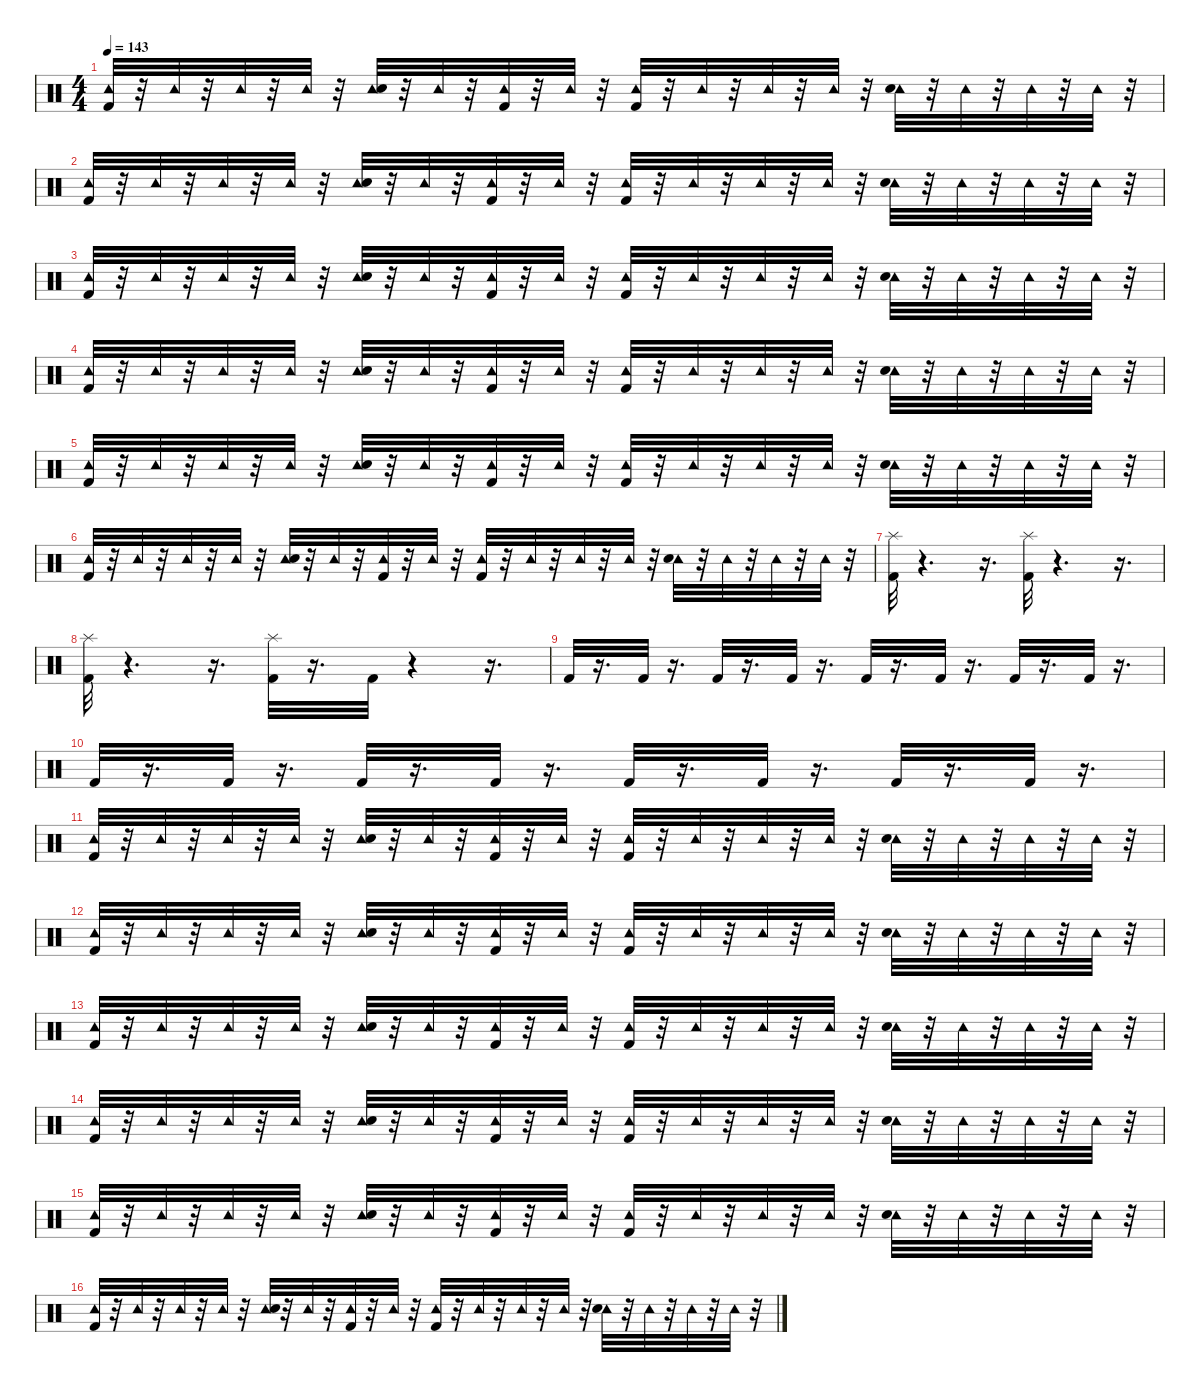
\defaultSystemsLayout 4
\hideDynamics
\bracketExtendMode nobrackets
\singleTrackTrackNamePolicy hidden
\multiTrackTrackNamePolicy hidden
\firstSystemTrackNameMode fullname
\firstSystemTrackNameOrientation horizontal
\otherSystemsTrackNameOrientation horizontal
\track ("Drums" "drm.") {instrument percussion}
\staff {score}
\articulation defaults
\ts (4 4)
\tempo 143
\clef neutral
\ks c
("Kick (hit) 2" "Tambourine (hit)").32{dy ff beam Up} r.32{beam Up} "Tambourine (hit)".32{dy mf beam Up} r.32{beam Up} "Tambourine (hit)".32{beam Up} r.32{beam Up} "Tambourine (hit)".32{beam Up} r.32{beam Up} ("Tambourine (hit)" "Snare (hit) 2").32{dy fff beam Up} r.32{beam Up} "Tambourine (hit)".32{dy mf beam Up} r.32{beam Up} ("Kick (hit) 2" "Tambourine (hit)").32{dy fff beam Up} r.32{beam Up} "Tambourine (hit)".32{dy mf beam Up} r.32{beam Up} ("Kick (hit) 2" "Tambourine (hit)").32{dy ff beam Up} r.32{beam Up} "Tambourine (hit)".32{dy mf beam Up} r.32{beam Up} "Tambourine (hit)".32{dy mp beam Up} r.32{beam Up} "Tambourine (hit)".32{dy mf beam Up} r.32{beam Up} ("Tambourine (hit)" "Snare (hit) 2").32{dy fff beam Down} r.32{beam Down} "Tambourine (hit)".32{dy mf beam Down} r.32{beam Down} "Tambourine (hit)".32{beam Down} r.32{beam Down} "Tambourine (hit)".32{beam Down} r.32{beam Down} |
("Kick (hit) 2" "Tambourine (hit)").32{dy ff beam Up} r.32{beam Up} "Tambourine (hit)".32{dy mf beam Up} r.32{beam Up} "Tambourine (hit)".32{beam Up} r.32{beam Up} "Tambourine (hit)".32{beam Up} r.32{beam Up} ("Tambourine (hit)" "Snare (hit) 2").32{dy fff beam Up} r.32{beam Up} "Tambourine (hit)".32{dy mf beam Up} r.32{beam Up} ("Kick (hit) 2" "Tambourine (hit)").32{dy fff beam Up} r.32{beam Up} "Tambourine (hit)".32{dy mf beam Up} r.32{beam Up} ("Kick (hit) 2" "Tambourine (hit)").32{dy ff beam Up} r.32{beam Up} "Tambourine (hit)".32{dy mf beam Up} r.32{beam Up} "Tambourine (hit)".32{dy mp beam Up} r.32{beam Up} "Tambourine (hit)".32{dy mf beam Up} r.32{beam Up} ("Tambourine (hit)" "Snare (hit) 2").32{dy fff beam Down} r.32{beam Down} "Tambourine (hit)".32{dy mf beam Down} r.32{beam Down} "Tambourine (hit)".32{beam Down} r.32{beam Down} "Tambourine (hit)".32{beam Down} r.32{beam Down} |
("Kick (hit) 2" "Tambourine (hit)").32{dy ff beam Up} r.32{beam Up} "Tambourine (hit)".32{dy mf beam Up} r.32{beam Up} "Tambourine (hit)".32{beam Up} r.32{beam Up} "Tambourine (hit)".32{beam Up} r.32{beam Up} ("Tambourine (hit)" "Snare (hit) 2").32{dy fff beam Up} r.32{beam Up} "Tambourine (hit)".32{dy mf beam Up} r.32{beam Up} ("Kick (hit) 2" "Tambourine (hit)").32{dy fff beam Up} r.32{beam Up} "Tambourine (hit)".32{dy mf beam Up} r.32{beam Up} ("Kick (hit) 2" "Tambourine (hit)").32{dy ff beam Up} r.32{beam Up} "Tambourine (hit)".32{dy mf beam Up} r.32{beam Up} "Tambourine (hit)".32{dy mp beam Up} r.32{beam Up} "Tambourine (hit)".32{dy mf beam Up} r.32{beam Up} ("Tambourine (hit)" "Snare (hit) 2").32{dy fff beam Down} r.32{beam Down} "Tambourine (hit)".32{dy mf beam Down} r.32{beam Down} "Tambourine (hit)".32{beam Down} r.32{beam Down} "Tambourine (hit)".32{beam Down} r.32{beam Down} |
("Kick (hit) 2" "Tambourine (hit)").32{dy ff beam Up} r.32{beam Up} "Tambourine (hit)".32{dy mf beam Up} r.32{beam Up} "Tambourine (hit)".32{beam Up} r.32{beam Up} "Tambourine (hit)".32{beam Up} r.32{beam Up} ("Tambourine (hit)" "Snare (hit) 2").32{dy fff beam Up} r.32{beam Up} "Tambourine (hit)".32{dy mf beam Up} r.32{beam Up} ("Kick (hit) 2" "Tambourine (hit)").32{dy fff beam Up} r.32{beam Up} "Tambourine (hit)".32{dy mf beam Up} r.32{beam Up} ("Kick (hit) 2" "Tambourine (hit)").32{dy ff beam Up} r.32{beam Up} "Tambourine (hit)".32{dy mf beam Up} r.32{beam Up} "Tambourine (hit)".32{dy mp beam Up} r.32{beam Up} "Tambourine (hit)".32{dy mf beam Up} r.32{beam Up} ("Tambourine (hit)" "Snare (hit) 2").32{dy fff beam Down} r.32{beam Down} "Tambourine (hit)".32{dy mf beam Down} r.32{beam Down} "Tambourine (hit)".32{beam Down} r.32{beam Down} "Tambourine (hit)".32{beam Down} r.32{beam Down} |
("Kick (hit) 2" "Tambourine (hit)").32{dy ff beam Up} r.32{beam Up} "Tambourine (hit)".32{dy mf beam Up} r.32{beam Up} "Tambourine (hit)".32{beam Up} r.32{beam Up} "Tambourine (hit)".32{beam Up} r.32{beam Up} ("Tambourine (hit)" "Snare (hit) 2").32{dy fff beam Up} r.32{beam Up} "Tambourine (hit)".32{dy mf beam Up} r.32{beam Up} ("Kick (hit) 2" "Tambourine (hit)").32{dy fff beam Up} r.32{beam Up} "Tambourine (hit)".32{dy mf beam Up} r.32{beam Up} ("Kick (hit) 2" "Tambourine (hit)").32{dy ff beam Up} r.32{beam Up} "Tambourine (hit)".32{dy mf beam Up} r.32{beam Up} "Tambourine (hit)".32{dy mp beam Up} r.32{beam Up} "Tambourine (hit)".32{dy mf beam Up} r.32{beam Up} ("Tambourine (hit)" "Snare (hit) 2").32{dy fff beam Down} r.32{beam Down} "Tambourine (hit)".32{dy mf beam Down} r.32{beam Down} "Tambourine (hit)".32{beam Down} r.32{beam Down} "Tambourine (hit)".32{beam Down} r.32{beam Down} |
("Kick (hit) 2" "Tambourine (hit)").32{dy ff beam Up} r.32{beam Up} "Tambourine (hit)".32{dy mf beam Up} r.32{beam Up} "Tambourine (hit)".32{beam Up} r.32{beam Up} "Tambourine (hit)".32{beam Up} r.32{beam Up} ("Tambourine (hit)" "Snare (hit) 2").32{dy fff beam Up} r.32{beam Up} "Tambourine (hit)".32{dy mf beam Up} r.32{beam Up} ("Kick (hit) 2" "Tambourine (hit)").32{dy fff beam Up} r.32{beam Up} "Tambourine (hit)".32{dy mf beam Up} r.32{beam Up} ("Kick (hit) 2" "Tambourine (hit)").32{dy ff beam Up} r.32{beam Up} "Tambourine (hit)".32{dy mf beam Up} r.32{beam Up} "Tambourine (hit)".32{dy mp beam Up} r.32{beam Up} "Tambourine (hit)".32{dy mf beam Up} r.32{beam Up} ("Tambourine (hit)" "Snare (hit) 2").32{dy fff beam Down} r.32{beam Down} "Tambourine (hit)".32{dy mf beam Down} r.32{beam Down} "Tambourine (hit)".32{beam Down} r.32{beam Down} "Tambourine (hit)".32{beam Down} r.32{beam Down} |
("Splash (hit)" "Kick (hit) 2").32{dy fff beam Down} r.4{d beam Down} r.16{d beam Down} ("Splash (hit)" "Kick (hit) 2").32{beam Down} r.4{d beam Down} r.16{d beam Down} |
("Splash (hit)" "Kick (hit) 2").32{beam Down} r.4{d beam Down} r.16{d beam Down} ("Splash (hit)" "Kick (hit) 2").32{beam Down} r.16{d beam Down} "Kick (hit) 2".32{dy ff beam Down} r.4{beam Down} r.16{d beam Down} |
"Kick (hit) 2".32{dy f beam Up} r.16{d beam Up} "Kick (hit) 2".32{beam Up} r.16{d beam Up} "Kick (hit) 2".32{beam Up} r.16{d beam Up} "Kick (hit) 2".32{dy ff beam Up} r.16{d beam Up} "Kick (hit) 2".32{dy fff beam Up} r.16{d beam Up} "Kick (hit) 2".32{dy ff beam Up} r.16{d beam Up} "Kick (hit) 2".32{beam Up} r.16{d beam Up} "Kick (hit) 2".32{beam Up} r.16{d beam Up} |
"Kick (hit) 2".32{beam Up} r.16{d beam Up} "Kick (hit) 2".32{beam Up} r.16{d beam Up} "Kick (hit) 2".32{beam Up} r.16{d beam Up} "Kick (hit) 2".32{beam Up} r.16{d beam Up} "Kick (hit) 2".32{dy fff beam Up} r.16{d beam Up} "Kick (hit) 2".32{dy ff beam Up} r.16{d beam Up} "Kick (hit) 2".32{beam Up} r.16{d beam Up} "Kick (hit) 2".32{dy fff beam Up} r.16{d beam Up} |
("Kick (hit) 2" "Tambourine (hit)").32{dy ff beam Up} r.32{beam Up} "Tambourine (hit)".32{dy mf beam Up} r.32{beam Up} "Tambourine (hit)".32{beam Up} r.32{beam Up} "Tambourine (hit)".32{beam Up} r.32{beam Up} ("Tambourine (hit)" "Snare (hit) 2").32{dy fff beam Up} r.32{beam Up} "Tambourine (hit)".32{dy mf beam Up} r.32{beam Up} ("Kick (hit) 2" "Tambourine (hit)").32{dy fff beam Up} r.32{beam Up} "Tambourine (hit)".32{dy mf beam Up} r.32{beam Up} ("Kick (hit) 2" "Tambourine (hit)").32{dy ff beam Up} r.32{beam Up} "Tambourine (hit)".32{dy mf beam Up} r.32{beam Up} "Tambourine (hit)".32{dy mp beam Up} r.32{beam Up} "Tambourine (hit)".32{dy mf beam Up} r.32{beam Up} ("Tambourine (hit)" "Snare (hit) 2").32{dy fff beam Down} r.32{beam Down} "Tambourine (hit)".32{dy mf beam Down} r.32{beam Down} "Tambourine (hit)".32{beam Down} r.32{beam Down} "Tambourine (hit)".32{beam Down} r.32{beam Down} |
("Kick (hit) 2" "Tambourine (hit)").32{dy ff beam Up} r.32{beam Up} "Tambourine (hit)".32{dy mf beam Up} r.32{beam Up} "Tambourine (hit)".32{beam Up} r.32{beam Up} "Tambourine (hit)".32{beam Up} r.32{beam Up} ("Tambourine (hit)" "Snare (hit) 2").32{dy fff beam Up} r.32{beam Up} "Tambourine (hit)".32{dy mf beam Up} r.32{beam Up} ("Kick (hit) 2" "Tambourine (hit)").32{dy fff beam Up} r.32{beam Up} "Tambourine (hit)".32{dy mf beam Up} r.32{beam Up} ("Kick (hit) 2" "Tambourine (hit)").32{dy ff beam Up} r.32{beam Up} "Tambourine (hit)".32{dy mf beam Up} r.32{beam Up} "Tambourine (hit)".32{dy mp beam Up} r.32{beam Up} "Tambourine (hit)".32{dy mf beam Up} r.32{beam Up} ("Tambourine (hit)" "Snare (hit) 2").32{dy fff beam Down} r.32{beam Down} "Tambourine (hit)".32{dy mf beam Down} r.32{beam Down} "Tambourine (hit)".32{beam Down} r.32{beam Down} "Tambourine (hit)".32{beam Down} r.32{beam Down} |
("Kick (hit) 2" "Tambourine (hit)").32{dy ff beam Up} r.32{beam Up} "Tambourine (hit)".32{dy mf beam Up} r.32{beam Up} "Tambourine (hit)".32{beam Up} r.32{beam Up} "Tambourine (hit)".32{beam Up} r.32{beam Up} ("Tambourine (hit)" "Snare (hit) 2").32{dy fff beam Up} r.32{beam Up} "Tambourine (hit)".32{dy mf beam Up} r.32{beam Up} ("Kick (hit) 2" "Tambourine (hit)").32{dy fff beam Up} r.32{beam Up} "Tambourine (hit)".32{dy mf beam Up} r.32{beam Up} ("Kick (hit) 2" "Tambourine (hit)").32{dy ff beam Up} r.32{beam Up} "Tambourine (hit)".32{dy mf beam Up} r.32{beam Up} "Tambourine (hit)".32{dy mp beam Up} r.32{beam Up} "Tambourine (hit)".32{dy mf beam Up} r.32{beam Up} ("Tambourine (hit)" "Snare (hit) 2").32{dy fff beam Down} r.32{beam Down} "Tambourine (hit)".32{dy mf beam Down} r.32{beam Down} "Tambourine (hit)".32{beam Down} r.32{beam Down} "Tambourine (hit)".32{beam Down} r.32{beam Down} |
("Kick (hit) 2" "Tambourine (hit)").32{dy ff beam Up} r.32{beam Up} "Tambourine (hit)".32{dy mf beam Up} r.32{beam Up} "Tambourine (hit)".32{beam Up} r.32{beam Up} "Tambourine (hit)".32{beam Up} r.32{beam Up} ("Tambourine (hit)" "Snare (hit) 2").32{dy fff beam Up} r.32{beam Up} "Tambourine (hit)".32{dy mf beam Up} r.32{beam Up} ("Kick (hit) 2" "Tambourine (hit)").32{dy fff beam Up} r.32{beam Up} "Tambourine (hit)".32{dy mf beam Up} r.32{beam Up} ("Kick (hit) 2" "Tambourine (hit)").32{dy ff beam Up} r.32{beam Up} "Tambourine (hit)".32{dy mf beam Up} r.32{beam Up} "Tambourine (hit)".32{dy mp beam Up} r.32{beam Up} "Tambourine (hit)".32{dy mf beam Up} r.32{beam Up} ("Tambourine (hit)" "Snare (hit) 2").32{dy fff beam Down} r.32{beam Down} "Tambourine (hit)".32{dy mf beam Down} r.32{beam Down} "Tambourine (hit)".32{beam Down} r.32{beam Down} "Tambourine (hit)".32{beam Down} r.32{beam Down} |
("Kick (hit) 2" "Tambourine (hit)").32{dy ff beam Up} r.32{beam Up} "Tambourine (hit)".32{dy mf beam Up} r.32{beam Up} "Tambourine (hit)".32{beam Up} r.32{beam Up} "Tambourine (hit)".32{beam Up} r.32{beam Up} ("Tambourine (hit)" "Snare (hit) 2").32{dy fff beam Up} r.32{beam Up} "Tambourine (hit)".32{dy mf beam Up} r.32{beam Up} ("Kick (hit) 2" "Tambourine (hit)").32{dy fff beam Up} r.32{beam Up} "Tambourine (hit)".32{dy mf beam Up} r.32{beam Up} ("Kick (hit) 2" "Tambourine (hit)").32{dy ff beam Up} r.32{beam Up} "Tambourine (hit)".32{dy mf beam Up} r.32{beam Up} "Tambourine (hit)".32{dy mp beam Up} r.32{beam Up} "Tambourine (hit)".32{dy mf beam Up} r.32{beam Up} ("Tambourine (hit)" "Snare (hit) 2").32{dy fff beam Down} r.32{beam Down} "Tambourine (hit)".32{dy mf beam Down} r.32{beam Down} "Tambourine (hit)".32{beam Down} r.32{beam Down} "Tambourine (hit)".32{beam Down} r.32{beam Down} |
("Kick (hit) 2" "Tambourine (hit)").32{dy ff beam Up} r.32{beam Up} "Tambourine (hit)".32{dy mf beam Up} r.32{beam Up} "Tambourine (hit)".32{beam Up} r.32{beam Up} "Tambourine (hit)".32{beam Up} r.32{beam Up} ("Tambourine (hit)" "Snare (hit) 2").32{dy fff beam Up} r.32{beam Up} "Tambourine (hit)".32{dy mf beam Up} r.32{beam Up} ("Kick (hit) 2" "Tambourine (hit)").32{dy fff beam Up} r.32{beam Up} "Tambourine (hit)".32{dy mf beam Up} r.32{beam Up} ("Kick (hit) 2" "Tambourine (hit)").32{dy ff beam Up} r.32{beam Up} "Tambourine (hit)".32{dy mf beam Up} r.32{beam Up} "Tambourine (hit)".32{dy mp beam Up} r.32{beam Up} "Tambourine (hit)".32{dy mf beam Up} r.32{beam Up} ("Tambourine (hit)" "Snare (hit) 2").32{dy fff beam Down} r.32{beam Down} "Tambourine (hit)".32{dy mf beam Down} r.32{beam Down} "Tambourine (hit)".32{beam Down} r.32{beam Down} "Tambourine (hit)".32{beam Down} r.32{beam Down}
